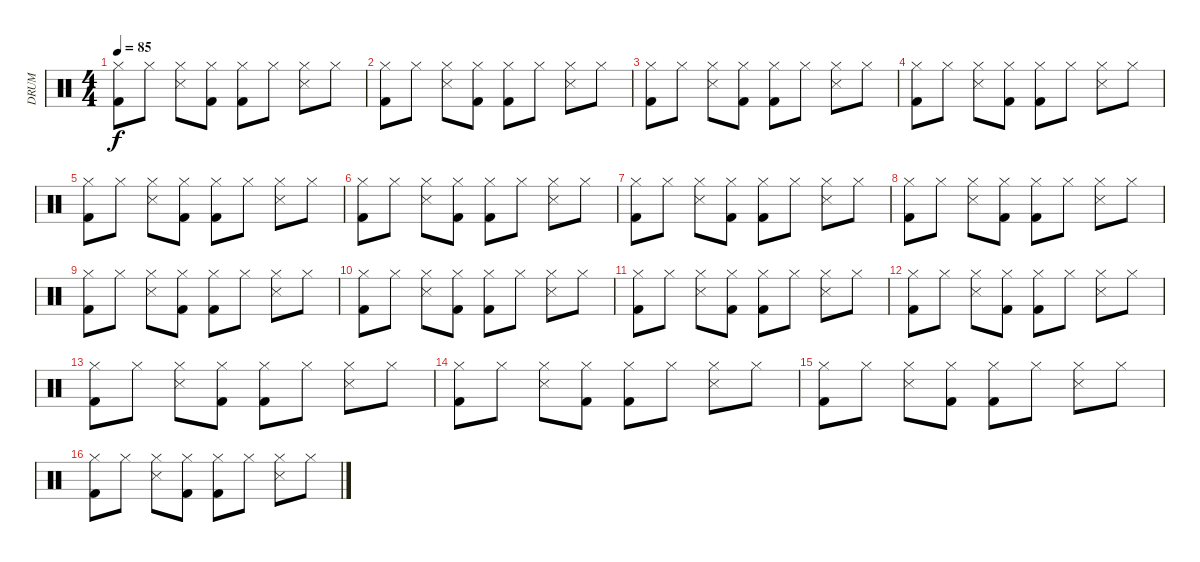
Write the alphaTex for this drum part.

\track ("DRUM" "DRUM") {instrument percussion}
\staff {score}
\articulation defaults
\ts (4 4)
\tempo 85
\clef neutral
\ks c
("Kick (hit) 2" "Hi-Hat (closed)").8{dy f} "Hi-Hat (closed)".8 ("Snare (side stick) 3" "Hi-Hat (closed)").8 ("Kick (hit) 2" "Hi-Hat (closed)").8 ("Kick (hit) 2" "Hi-Hat (closed)").8 "Hi-Hat (closed)".8 ("Snare (side stick) 3" "Hi-Hat (closed)").8 "Hi-Hat (closed)".8 |
("Kick (hit) 2" "Hi-Hat (closed)").8 "Hi-Hat (closed)".8 ("Snare (side stick) 3" "Hi-Hat (closed)").8 ("Kick (hit) 2" "Hi-Hat (closed)").8 ("Kick (hit) 2" "Hi-Hat (closed)").8 "Hi-Hat (closed)".8{txt ""} ("Snare (side stick) 3" "Hi-Hat (closed)").8 "Hi-Hat (closed)".8 |
("Kick (hit) 2" "Hi-Hat (closed)").8 "Hi-Hat (closed)".8 ("Snare (side stick) 3" "Hi-Hat (closed)").8 ("Kick (hit) 2" "Hi-Hat (closed)").8 ("Kick (hit) 2" "Hi-Hat (closed)").8 "Hi-Hat (closed)".8 ("Snare (side stick) 3" "Hi-Hat (closed)").8 "Hi-Hat (closed)".8 |
("Kick (hit) 2" "Hi-Hat (closed)").8 "Hi-Hat (closed)".8 ("Snare (side stick) 3" "Hi-Hat (closed)").8 ("Kick (hit) 2" "Hi-Hat (closed)").8 ("Kick (hit) 2" "Hi-Hat (closed)").8 "Hi-Hat (closed)".8 ("Snare (side stick) 3" "Hi-Hat (closed)").8 "Hi-Hat (closed)".8 |
("Kick (hit) 2" "Hi-Hat (closed)").8 "Hi-Hat (closed)".8 ("Snare (side stick) 3" "Hi-Hat (closed)").8 ("Kick (hit) 2" "Hi-Hat (closed)").8 ("Kick (hit) 2" "Hi-Hat (closed)").8 "Hi-Hat (closed)".8 ("Snare (side stick) 3" "Hi-Hat (closed)").8 "Hi-Hat (closed)".8 |
("Kick (hit) 2" "Hi-Hat (closed)").8 "Hi-Hat (closed)".8 ("Snare (side stick) 3" "Hi-Hat (closed)").8 ("Kick (hit) 2" "Hi-Hat (closed)").8 ("Kick (hit) 2" "Hi-Hat (closed)").8 "Hi-Hat (closed)".8 ("Snare (side stick) 3" "Hi-Hat (closed)").8 "Hi-Hat (closed)".8 |
("Kick (hit) 2" "Hi-Hat (closed)").8 "Hi-Hat (closed)".8 ("Snare (side stick) 3" "Hi-Hat (closed)").8 ("Kick (hit) 2" "Hi-Hat (closed)").8 ("Kick (hit) 2" "Hi-Hat (closed)").8 "Hi-Hat (closed)".8 ("Snare (side stick) 3" "Hi-Hat (closed)").8 "Hi-Hat (closed)".8 |
("Kick (hit) 2" "Hi-Hat (closed)").8 "Hi-Hat (closed)".8 ("Snare (side stick) 3" "Hi-Hat (closed)").8 ("Kick (hit) 2" "Hi-Hat (closed)").8 ("Kick (hit) 2" "Hi-Hat (closed)").8 "Hi-Hat (closed)".8 ("Snare (side stick) 3" "Hi-Hat (closed)").8 "Hi-Hat (closed)".8 |
("Kick (hit) 2" "Hi-Hat (closed)").8 "Hi-Hat (closed)".8 ("Snare (side stick) 3" "Hi-Hat (closed)").8 ("Kick (hit) 2" "Hi-Hat (closed)").8 ("Kick (hit) 2" "Hi-Hat (closed)").8 "Hi-Hat (closed)".8 ("Snare (side stick) 3" "Hi-Hat (closed)").8 "Hi-Hat (closed)".8 |
("Kick (hit) 2" "Hi-Hat (closed)").8 "Hi-Hat (closed)".8 ("Snare (side stick) 3" "Hi-Hat (closed)").8 ("Kick (hit) 2" "Hi-Hat (closed)").8 ("Kick (hit) 2" "Hi-Hat (closed)").8 "Hi-Hat (closed)".8 ("Snare (side stick) 3" "Hi-Hat (closed)").8 "Hi-Hat (closed)".8 |
("Kick (hit) 2" "Hi-Hat (closed)").8 "Hi-Hat (closed)".8 ("Snare (side stick) 3" "Hi-Hat (closed)").8 ("Kick (hit) 2" "Hi-Hat (closed)").8 ("Kick (hit) 2" "Hi-Hat (closed)").8 "Hi-Hat (closed)".8 ("Snare (side stick) 3" "Hi-Hat (closed)").8 "Hi-Hat (closed)".8 |
("Kick (hit) 2" "Hi-Hat (closed)").8 "Hi-Hat (closed)".8 ("Snare (side stick) 3" "Hi-Hat (closed)").8 ("Kick (hit) 2" "Hi-Hat (closed)").8 ("Kick (hit) 2" "Hi-Hat (closed)").8 "Hi-Hat (closed)".8 ("Snare (side stick) 3" "Hi-Hat (closed)").8 "Hi-Hat (closed)".8 |
("Kick (hit) 2" "Hi-Hat (closed)").8 "Hi-Hat (closed)".8 ("Snare (side stick) 3" "Hi-Hat (closed)").8 ("Kick (hit) 2" "Hi-Hat (closed)").8 ("Kick (hit) 2" "Hi-Hat (closed)").8 "Hi-Hat (closed)".8 ("Snare (side stick) 3" "Hi-Hat (closed)").8 "Hi-Hat (closed)".8 |
("Kick (hit) 2" "Hi-Hat (closed)").8 "Hi-Hat (closed)".8 ("Snare (side stick) 3" "Hi-Hat (closed)").8 ("Kick (hit) 2" "Hi-Hat (closed)").8 ("Kick (hit) 2" "Hi-Hat (closed)").8 "Hi-Hat (closed)".8 ("Snare (side stick) 3" "Hi-Hat (closed)").8 "Hi-Hat (closed)".8 |
("Kick (hit) 2" "Hi-Hat (closed)").8 "Hi-Hat (closed)".8 ("Snare (side stick) 3" "Hi-Hat (closed)").8 ("Kick (hit) 2" "Hi-Hat (closed)").8 ("Kick (hit) 2" "Hi-Hat (closed)").8 "Hi-Hat (closed)".8 ("Snare (side stick) 3" "Hi-Hat (closed)").8 "Hi-Hat (closed)".8 |
("Kick (hit) 2" "Hi-Hat (closed)").8 "Hi-Hat (closed)".8 ("Snare (side stick) 3" "Hi-Hat (closed)").8 ("Kick (hit) 2" "Hi-Hat (closed)").8 ("Kick (hit) 2" "Hi-Hat (closed)").8 "Hi-Hat (closed)".8 ("Snare (side stick) 3" "Hi-Hat (closed)").8 "Hi-Hat (closed)".8
